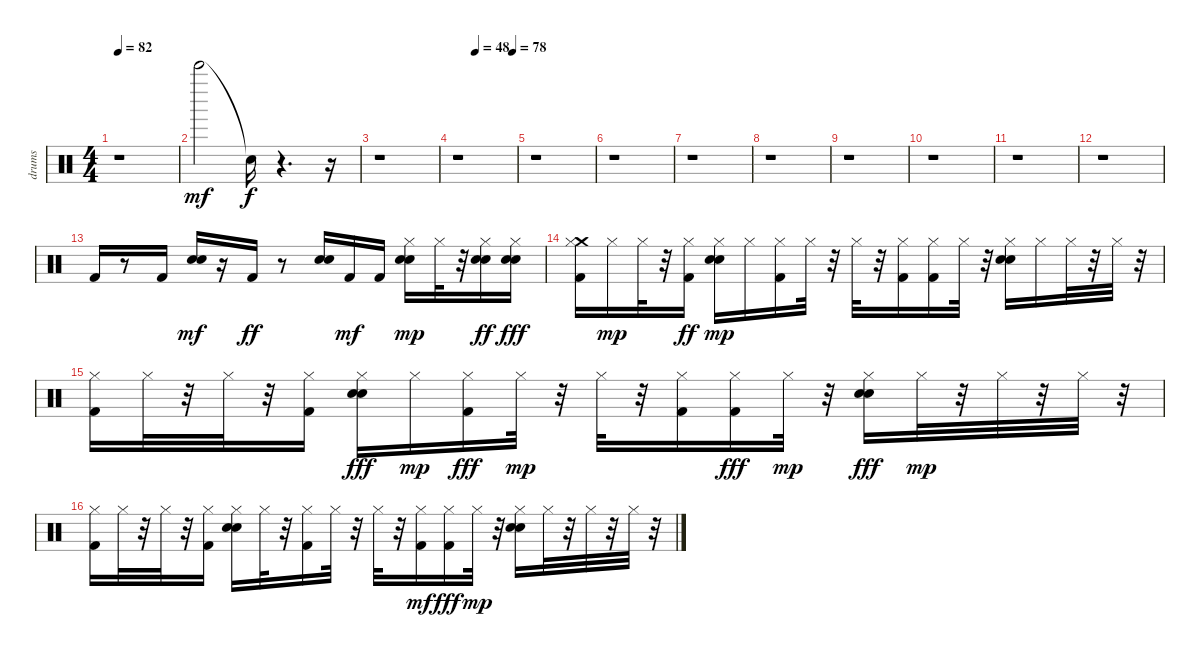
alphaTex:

\track ("drums" "drums") {instrument percussion}
\staff {score}
\articulation defaults
\ts (4 4)
\tempo 82
\clef neutral
\ks c
r.1{dy f} |
"Bell Tree (hit)".2{dy mf} "Snare (hit)"{t}.16{dy f} r.4{d} r.16 |
r.1 |
\tempo (48 0.3125)
\tempo (78 0.9375)
r.1 |
r.1 |
r.1 |
r.1 |
r.1 |
r.1 |
r.1 |
r.1 |
r.1 |
"Kick (hit) 2".16{volume 14 balance 8} r.8 "Kick (hit) 2".16 ("Electric Snare (hit)" "Snare (hit) 2").16{dy mf} r.16 "Kick (hit) 2".16{dy ff} r.8 ("Snare (hit) 2" "Electric Snare (hit)").16 "Kick (hit) 2".16{dy mf} "Kick (hit) 2".16 ("Electric Snare (hit)" "Snare (hit) 2" "Hi-Hat (closed)").16{dy mp} "Hi-Hat (closed)".32 r.32 ("Hi-Hat (closed)" "Electric Snare (hit)" "Snare (hit) 2").16{dy ff} ("Hi-Hat (closed)" "Electric Snare (hit)" "Snare (hit) 2").16{dy fff} |
("Crash medium (hit)" "Hi-Hat (closed)" "Kick (hit) 2").16 "Hi-Hat (closed)".16{dy mp} "Hi-Hat (closed)".32 r.32 ("Hi-Hat (closed)" "Kick (hit) 2").16{dy ff} ("Electric Snare (hit)" "Snare (hit) 2" "Hi-Hat (closed)").16{dy mp} "Hi-Hat (closed)".16 ("Kick (hit) 2" "Hi-Hat (closed)").16 "Hi-Hat (closed)".32 r.32 "Hi-Hat (closed)".32 r.32 ("Kick (hit) 2" "Hi-Hat (closed)").16 ("Kick (hit) 2" "Hi-Hat (closed)").16 "Hi-Hat (closed)".32 r.32 ("Electric Snare (hit)" "Snare (hit) 2" "Hi-Hat (closed)").16 "Hi-Hat (closed)".16 "Hi-Hat (closed)".32 r.32 "Hi-Hat (closed)".32 r.32 |
("Kick (hit) 2" "Hi-Hat (closed)").16 "Hi-Hat (closed)".32 r.32 "Hi-Hat (closed)".32 r.32 ("Kick (hit) 2" "Hi-Hat (closed)").16 ("Hi-Hat (closed)" "Snare (hit) 2" "Electric Snare (hit)").16{dy fff} "Hi-Hat (closed)".16{dy mp} ("Hi-Hat (closed)" "Kick (hit) 2").16{dy fff} "Hi-Hat (closed)".32{dy mp} r.32 "Hi-Hat (closed)".32 r.32 ("Kick (hit) 2" "Hi-Hat (closed)").16 ("Hi-Hat (closed)" "Kick (hit) 2").16{dy fff} "Hi-Hat (closed)".32{dy mp} r.32 ("Hi-Hat (closed)" "Electric Snare (hit)" "Snare (hit) 2").16{dy fff} "Hi-Hat (closed)".32{dy mp} r.32 "Hi-Hat (closed)".32 r.32 "Hi-Hat (closed)".32 r.32 |
("Kick (hit) 2" "Hi-Hat (closed)").16 "Hi-Hat (closed)".32 r.32 "Hi-Hat (closed)".32 r.32 ("Kick (hit) 2" "Hi-Hat (closed)").16 ("Electric Snare (hit)" "Snare (hit) 2" "Hi-Hat (closed)").16 "Hi-Hat (closed)".32 r.32 ("Kick (hit) 2" "Hi-Hat (closed)").16 "Hi-Hat (closed)".32 r.32 "Hi-Hat (closed)".32 r.32 ("Hi-Hat (closed)" "Kick (hit) 2").16{dy mf} ("Hi-Hat (closed)" "Kick (hit) 2").16{dy fff} "Hi-Hat (closed)".32{dy mp} r.32 ("Snare (hit) 2" "Electric Snare (hit)" "Hi-Hat (closed)").16 "Hi-Hat (closed)".32 r.32 "Hi-Hat (closed)".32 r.32 "Hi-Hat (closed)".32 r.32
